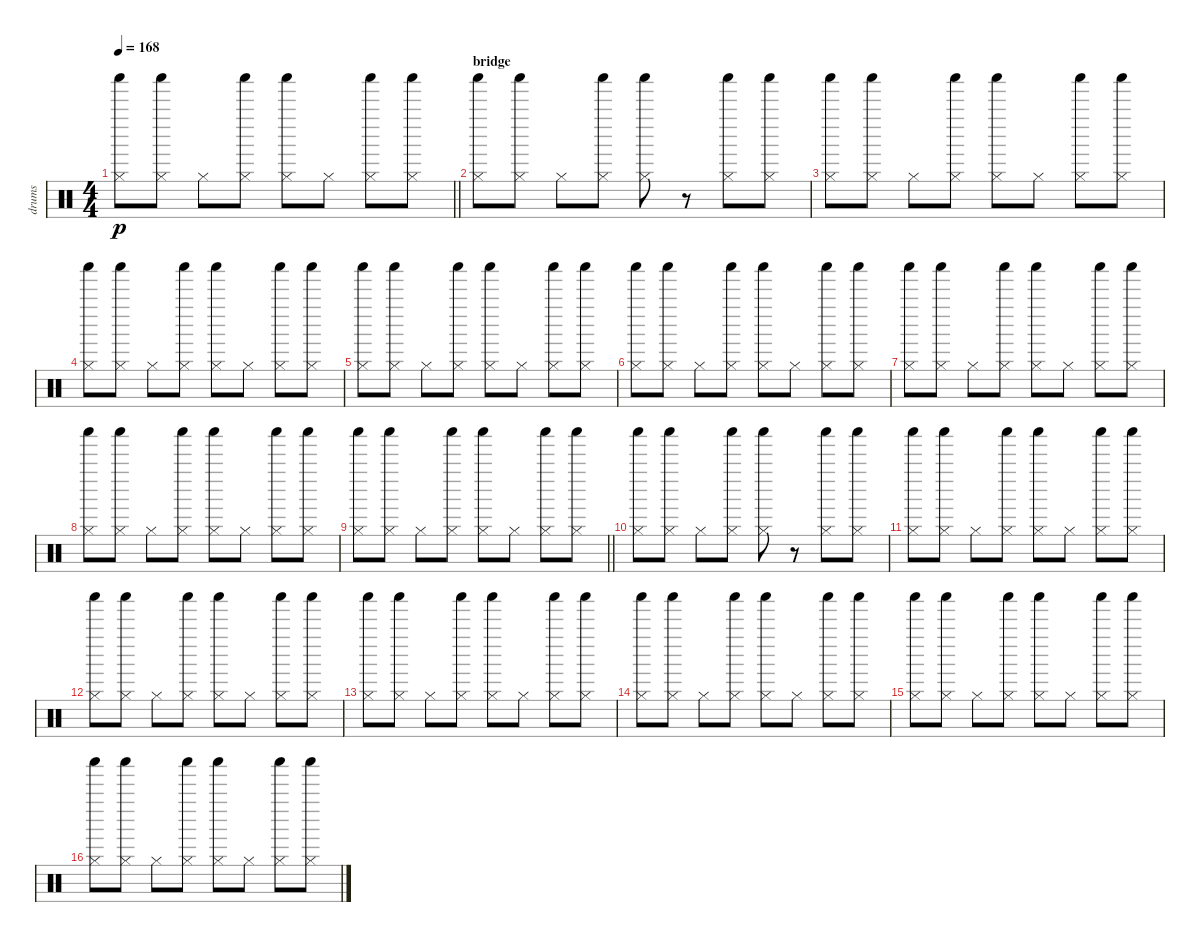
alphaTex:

\track ("drums" "drums") {instrument percussion}
\staff {score}
\articulation defaults
\ts (4 4)
\tempo 168
\clef neutral
\barLineRight lightlight
\ks c
("Hi-Hat (closed)" "Shaker (hit)").8{dy p} ("Hi-Hat (closed)" "Shaker (hit)").8 "Hi-Hat (closed)".8 ("Hi-Hat (closed)" "Shaker (hit)").8 ("Hi-Hat (closed)" "Shaker (hit)").8 "Hi-Hat (closed)".8 ("Hi-Hat (closed)" "Shaker (hit)").8 ("Hi-Hat (closed)" "Shaker (hit)").8 |
\section ("" "bridge")
("Hi-Hat (closed)" "Shaker (hit)").8 ("Hi-Hat (closed)" "Shaker (hit)").8 "Hi-Hat (closed)".8 ("Hi-Hat (closed)" "Shaker (hit)").8 ("Hi-Hat (closed)" "Shaker (hit)").8 r.8 ("Hi-Hat (closed)" "Shaker (hit)").8 ("Hi-Hat (closed)" "Shaker (hit)").8 |
("Hi-Hat (closed)" "Shaker (hit)").8 ("Hi-Hat (closed)" "Shaker (hit)").8 "Hi-Hat (closed)".8 ("Hi-Hat (closed)" "Shaker (hit)").8 ("Hi-Hat (closed)" "Shaker (hit)").8 "Hi-Hat (closed)".8 ("Hi-Hat (closed)" "Shaker (hit)").8 ("Hi-Hat (closed)" "Shaker (hit)").8 |
("Hi-Hat (closed)" "Shaker (hit)").8 ("Hi-Hat (closed)" "Shaker (hit)").8 "Hi-Hat (closed)".8 ("Hi-Hat (closed)" "Shaker (hit)").8 ("Hi-Hat (closed)" "Shaker (hit)").8 "Hi-Hat (closed)".8 ("Hi-Hat (closed)" "Shaker (hit)").8 ("Hi-Hat (closed)" "Shaker (hit)").8 |
("Hi-Hat (closed)" "Shaker (hit)").8 ("Hi-Hat (closed)" "Shaker (hit)").8 "Hi-Hat (closed)".8 ("Hi-Hat (closed)" "Shaker (hit)").8 ("Hi-Hat (closed)" "Shaker (hit)").8 "Hi-Hat (closed)".8 ("Hi-Hat (closed)" "Shaker (hit)").8 ("Hi-Hat (closed)" "Shaker (hit)").8 |
("Hi-Hat (closed)" "Shaker (hit)").8 ("Hi-Hat (closed)" "Shaker (hit)").8 "Hi-Hat (closed)".8 ("Hi-Hat (closed)" "Shaker (hit)").8 ("Hi-Hat (closed)" "Shaker (hit)").8 "Hi-Hat (closed)".8 ("Hi-Hat (closed)" "Shaker (hit)").8 ("Hi-Hat (closed)" "Shaker (hit)").8 |
("Hi-Hat (closed)" "Shaker (hit)").8 ("Hi-Hat (closed)" "Shaker (hit)").8 "Hi-Hat (closed)".8 ("Hi-Hat (closed)" "Shaker (hit)").8 ("Hi-Hat (closed)" "Shaker (hit)").8 "Hi-Hat (closed)".8 ("Hi-Hat (closed)" "Shaker (hit)").8 ("Hi-Hat (closed)" "Shaker (hit)").8 |
("Hi-Hat (closed)" "Shaker (hit)").8 ("Hi-Hat (closed)" "Shaker (hit)").8 "Hi-Hat (closed)".8 ("Hi-Hat (closed)" "Shaker (hit)").8 ("Hi-Hat (closed)" "Shaker (hit)").8 "Hi-Hat (closed)".8 ("Hi-Hat (closed)" "Shaker (hit)").8 ("Hi-Hat (closed)" "Shaker (hit)").8 |
\barLineRight lightlight
("Hi-Hat (closed)" "Shaker (hit)").8 ("Hi-Hat (closed)" "Shaker (hit)").8 "Hi-Hat (closed)".8 ("Hi-Hat (closed)" "Shaker (hit)").8 ("Hi-Hat (closed)" "Shaker (hit)").8 "Hi-Hat (closed)".8 ("Hi-Hat (closed)" "Shaker (hit)").8 ("Hi-Hat (closed)" "Shaker (hit)").8 |
("Hi-Hat (closed)" "Shaker (hit)").8 ("Hi-Hat (closed)" "Shaker (hit)").8 "Hi-Hat (closed)".8 ("Hi-Hat (closed)" "Shaker (hit)").8 ("Hi-Hat (closed)" "Shaker (hit)").8 r.8 ("Hi-Hat (closed)" "Shaker (hit)").8 ("Hi-Hat (closed)" "Shaker (hit)").8 |
("Hi-Hat (closed)" "Shaker (hit)").8 ("Hi-Hat (closed)" "Shaker (hit)").8 "Hi-Hat (closed)".8 ("Hi-Hat (closed)" "Shaker (hit)").8 ("Hi-Hat (closed)" "Shaker (hit)").8 "Hi-Hat (closed)".8 ("Hi-Hat (closed)" "Shaker (hit)").8 ("Hi-Hat (closed)" "Shaker (hit)").8 |
("Hi-Hat (closed)" "Shaker (hit)").8 ("Hi-Hat (closed)" "Shaker (hit)").8 "Hi-Hat (closed)".8 ("Hi-Hat (closed)" "Shaker (hit)").8 ("Hi-Hat (closed)" "Shaker (hit)").8 "Hi-Hat (closed)".8 ("Hi-Hat (closed)" "Shaker (hit)").8 ("Hi-Hat (closed)" "Shaker (hit)").8 |
("Hi-Hat (closed)" "Shaker (hit)").8 ("Hi-Hat (closed)" "Shaker (hit)").8 "Hi-Hat (closed)".8 ("Hi-Hat (closed)" "Shaker (hit)").8 ("Hi-Hat (closed)" "Shaker (hit)").8 "Hi-Hat (closed)".8 ("Hi-Hat (closed)" "Shaker (hit)").8 ("Hi-Hat (closed)" "Shaker (hit)").8 |
("Hi-Hat (closed)" "Shaker (hit)").8 ("Hi-Hat (closed)" "Shaker (hit)").8 "Hi-Hat (closed)".8 ("Hi-Hat (closed)" "Shaker (hit)").8 ("Hi-Hat (closed)" "Shaker (hit)").8 "Hi-Hat (closed)".8 ("Hi-Hat (closed)" "Shaker (hit)").8 ("Hi-Hat (closed)" "Shaker (hit)").8 |
("Hi-Hat (closed)" "Shaker (hit)").8 ("Hi-Hat (closed)" "Shaker (hit)").8 "Hi-Hat (closed)".8 ("Hi-Hat (closed)" "Shaker (hit)").8 ("Hi-Hat (closed)" "Shaker (hit)").8 "Hi-Hat (closed)".8 ("Hi-Hat (closed)" "Shaker (hit)").8 ("Hi-Hat (closed)" "Shaker (hit)").8 |
("Hi-Hat (closed)" "Shaker (hit)").8 ("Hi-Hat (closed)" "Shaker (hit)").8 "Hi-Hat (closed)".8 ("Hi-Hat (closed)" "Shaker (hit)").8 ("Hi-Hat (closed)" "Shaker (hit)").8 "Hi-Hat (closed)".8 ("Hi-Hat (closed)" "Shaker (hit)").8 ("Hi-Hat (closed)" "Shaker (hit)").8
